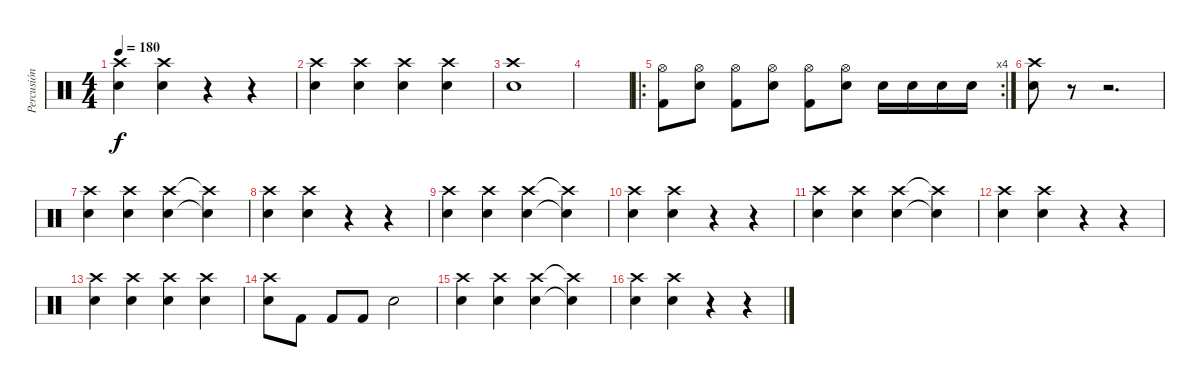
\track ("Percusión" "Percusión") {instrument percussion}
\staff {score}
\articulation defaults
\ts (4 4)
\tempo 180
\clef neutral
\ks c
("Crash high (hit)" "Electric Snare (hit)").4{dy f} ("Crash high (hit)" "Electric Snare (hit)").4 r.4 r.4 |
("Crash high (hit)" "Electric Snare (hit)").4 ("Crash high (hit)" "Electric Snare (hit)").4 ("Crash high (hit)" "Electric Snare (hit)").4 ("Crash high (hit)" "Electric Snare (hit)").4 |
("Crash high (hit)" "Electric Snare (hit)").1 |
|
\ro
\rc 4
("Hi-Hat (open)" "Kick (hit) 2").8 ("Hi-Hat (open)" "Electric Snare (hit)").8 ("Hi-Hat (open)" "Kick (hit) 2").8 ("Hi-Hat (open)" "Electric Snare (hit)").8 ("Hi-Hat (open)" "Kick (hit) 2").8 ("Hi-Hat (open)" "Electric Snare (hit)").8 "Electric Snare (hit)".16 "Electric Snare (hit)".16 "Electric Snare (hit)".16 "Electric Snare (hit)".16 |
("Crash high (hit)" "Electric Snare (hit)").8 r.8 r.2{d} |
("Crash high (hit)" "Electric Snare (hit)").4 ("Crash high (hit)" "Electric Snare (hit)").4 ("Crash high (hit)" "Electric Snare (hit)").4 ("Crash high (hit)"{t} "Electric Snare (hit)"{t}).4 |
("Crash high (hit)" "Electric Snare (hit)").4 ("Crash high (hit)" "Electric Snare (hit)").4 r.4 r.4 |
("Crash high (hit)" "Electric Snare (hit)").4 ("Crash high (hit)" "Electric Snare (hit)").4 ("Crash high (hit)" "Electric Snare (hit)").4 ("Crash high (hit)"{t} "Electric Snare (hit)"{t}).4 |
("Crash high (hit)" "Electric Snare (hit)").4 ("Crash high (hit)" "Electric Snare (hit)").4 r.4 r.4 |
("Crash high (hit)" "Electric Snare (hit)").4 ("Crash high (hit)" "Electric Snare (hit)").4 ("Crash high (hit)" "Electric Snare (hit)").4 ("Crash high (hit)"{t} "Electric Snare (hit)"{t}).4 |
("Crash high (hit)" "Electric Snare (hit)").4 ("Crash high (hit)" "Electric Snare (hit)").4 r.4 r.4 |
("Crash high (hit)" "Electric Snare (hit)").4 ("Crash high (hit)" "Electric Snare (hit)").4 ("Crash high (hit)" "Electric Snare (hit)").4 ("Crash high (hit)" "Electric Snare (hit)").4 |
("Crash high (hit)" "Electric Snare (hit)").8 "Kick (hit) 2".8 "Kick (hit) 2".8 "Kick (hit) 2".8 "Electric Snare (hit)".2 |
("Crash high (hit)" "Electric Snare (hit)").4 ("Crash high (hit)" "Electric Snare (hit)").4 ("Crash high (hit)" "Electric Snare (hit)").4 ("Crash high (hit)"{t} "Electric Snare (hit)"{t}).4 |
("Crash high (hit)" "Electric Snare (hit)").4 ("Crash high (hit)" "Electric Snare (hit)").4 r.4 r.4
